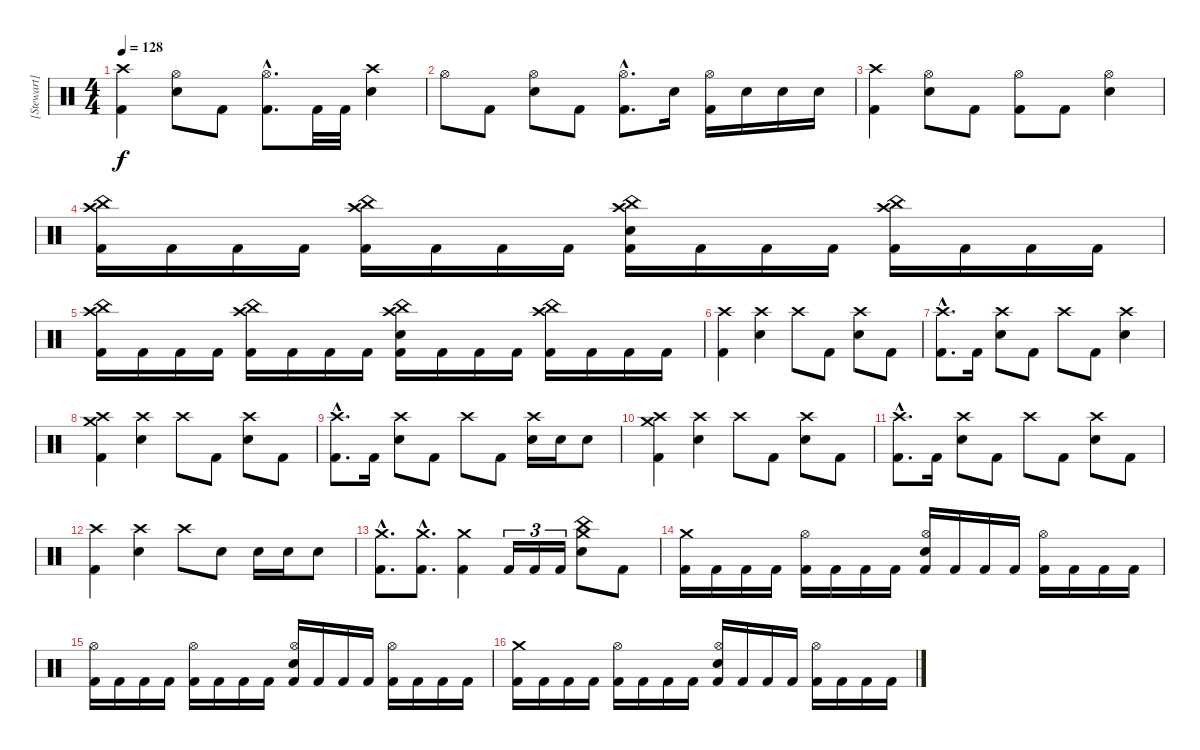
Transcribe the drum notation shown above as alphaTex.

\track ("[Stewart]" "[Stewart]") {instrument percussion}
\staff {score}
\articulation defaults
\ts (4 4)
\tempo 128
\clef neutral
\ks c
("Crash high (hit)" "Kick (hit) 2").4{dy f} ("Hi-Hat (open)" "Electric Snare (hit)").8 "Kick (hit) 2".8 ("Hi-Hat (open)"{hac} "Kick (hit) 2"{hac}).8{d} "Kick (hit) 2".32 "Kick (hit) 2".32 ("Crash high (hit)" "Electric Snare (hit)").4 |
"Hi-Hat (open)".8 "Kick (hit) 2".8 ("Hi-Hat (open)" "Electric Snare (hit)").8 "Kick (hit) 2".8 ("Hi-Hat (open)"{hac} "Kick (hit) 2"{hac}).8{d} "Electric Snare (hit)".16 ("Hi-Hat (open)" "Kick (hit) 2").16 "Electric Snare (hit)".16 "Electric Snare (hit)".16 "Electric Snare (hit)".16 |
("Crash high (hit)" "Kick (hit) 2").4 ("Hi-Hat (open)" "Electric Snare (hit)").8 "Kick (hit) 2".8 ("Hi-Hat (open)" "Kick (hit) 2").8 "Kick (hit) 2".8 ("Hi-Hat (open)" "Electric Snare (hit)").4 |
("China (hit)" "Crash high (hit)" "Kick (hit) 2").16 "Kick (hit) 2".16 "Kick (hit) 2".16 "Kick (hit) 2".16 ("China (hit)" "Crash high (hit)" "Kick (hit) 2").16 "Kick (hit) 2".16 "Kick (hit) 2".16 "Kick (hit) 2".16 ("China (hit)" "Crash high (hit)" "Electric Snare (hit)" "Kick (hit) 2").16 "Kick (hit) 2".16 "Kick (hit) 2".16 "Kick (hit) 2".16 ("China (hit)" "Crash high (hit)" "Kick (hit) 2").16 "Kick (hit) 2".16 "Kick (hit) 2".16 "Kick (hit) 2".16 |
("China (hit)" "Crash high (hit)" "Kick (hit) 2").16 "Kick (hit) 2".16 "Kick (hit) 2".16 "Kick (hit) 2".16 ("China (hit)" "Crash high (hit)" "Kick (hit) 2").16 "Kick (hit) 2".16 "Kick (hit) 2".16 "Kick (hit) 2".16 ("China (hit)" "Crash high (hit)" "Electric Snare (hit)" "Kick (hit) 2").16 "Kick (hit) 2".16 "Kick (hit) 2".16 "Kick (hit) 2".16 ("China (hit)" "Crash high (hit)" "Kick (hit) 2").16 "Kick (hit) 2".16 "Kick (hit) 2".16 "Kick (hit) 2".16 |
("Crash high (hit)" "Kick (hit) 2").4 ("Crash high (hit)" "Electric Snare (hit)").4 "Crash high (hit)".8 "Kick (hit) 2".8 ("Crash high (hit)" "Electric Snare (hit)").8 "Kick (hit) 2".8 |
("Crash high (hit)"{hac} "Kick (hit) 2"{hac}).8{d} "Kick (hit) 2".16 ("Crash high (hit)" "Electric Snare (hit)").8 "Kick (hit) 2".8 "Crash high (hit)".8 "Kick (hit) 2".8 ("Crash high (hit)" "Electric Snare (hit)").4 |
("Crash high (hit)" "Crash medium (hit)" "Kick (hit) 2").4 ("Crash high (hit)" "Electric Snare (hit)").4 "Crash high (hit)".8 "Kick (hit) 2".8 ("Crash high (hit)" "Electric Snare (hit)").8 "Kick (hit) 2".8 |
("Crash high (hit)"{hac} "Kick (hit) 2"{hac}).8{d} "Kick (hit) 2".16 ("Crash high (hit)" "Electric Snare (hit)").8 "Kick (hit) 2".8 "Crash high (hit)".8 "Kick (hit) 2".8 ("Crash high (hit)" "Electric Snare (hit)").16 "Electric Snare (hit)".16 "Electric Snare (hit)".8 |
("Crash high (hit)" "Crash medium (hit)" "Kick (hit) 2").4 ("Crash high (hit)" "Electric Snare (hit)").4 "Crash high (hit)".8 "Kick (hit) 2".8 ("Crash high (hit)" "Electric Snare (hit)").8 "Kick (hit) 2".8 |
("Crash high (hit)"{hac} "Kick (hit) 2"{hac}).8{d} "Kick (hit) 2".16 ("Crash high (hit)" "Electric Snare (hit)").8 "Kick (hit) 2".8 "Crash high (hit)".8 "Kick (hit) 2".8 ("Crash high (hit)" "Electric Snare (hit)").8 "Kick (hit) 2".8 |
("Crash high (hit)" "Kick (hit) 2").4 ("Crash high (hit)" "Electric Snare (hit)").4 "Crash high (hit)".8 "Electric Snare (hit)".8 "Electric Snare (hit)".16 "Electric Snare (hit)".16 "Electric Snare (hit)".8 |
("Crash medium (hit)"{hac} "Kick (hit) 2"{hac}).8{d} ("Crash medium (hit)"{hac} "Kick (hit) 2"{hac}).8{d} ("Crash medium (hit)" "Kick (hit) 2").4 "Kick (hit) 2".16{tu (3 2)} "Kick (hit) 2".16{tu (3 2)} "Kick (hit) 2".16{tu (3 2)} ("Crash medium (hit)" "China (hit)" "Electric Snare (hit)").8 "Kick (hit) 2".8 |
("Crash medium (hit)" "Kick (hit) 2").16 "Kick (hit) 2".16 "Kick (hit) 2".16 "Kick (hit) 2".16 ("Hi-Hat (open)" "Kick (hit) 2").16 "Kick (hit) 2".16 "Kick (hit) 2".16 "Kick (hit) 2".16 ("Hi-Hat (open)" "Electric Snare (hit)" "Kick (hit) 2").16 "Kick (hit) 2".16 "Kick (hit) 2".16 "Kick (hit) 2".16 ("Hi-Hat (open)" "Kick (hit) 2").16 "Kick (hit) 2".16 "Kick (hit) 2".16 "Kick (hit) 2".16 |
("Hi-Hat (open)" "Kick (hit) 2").16 "Kick (hit) 2".16 "Kick (hit) 2".16 "Kick (hit) 2".16 ("Hi-Hat (open)" "Kick (hit) 2").16 "Kick (hit) 2".16 "Kick (hit) 2".16 "Kick (hit) 2".16 ("Hi-Hat (open)" "Electric Snare (hit)" "Kick (hit) 2").16 "Kick (hit) 2".16 "Kick (hit) 2".16 "Kick (hit) 2".16 ("Hi-Hat (open)" "Kick (hit) 2").16 "Kick (hit) 2".16 "Kick (hit) 2".16 "Kick (hit) 2".16 |
("Crash medium (hit)" "Kick (hit) 2").16 "Kick (hit) 2".16 "Kick (hit) 2".16 "Kick (hit) 2".16 ("Hi-Hat (open)" "Kick (hit) 2").16 "Kick (hit) 2".16 "Kick (hit) 2".16 "Kick (hit) 2".16 ("Hi-Hat (open)" "Electric Snare (hit)" "Kick (hit) 2").16 "Kick (hit) 2".16 "Kick (hit) 2".16 "Kick (hit) 2".16 ("Hi-Hat (open)" "Kick (hit) 2").16 "Kick (hit) 2".16 "Kick (hit) 2".16 "Kick (hit) 2".16
